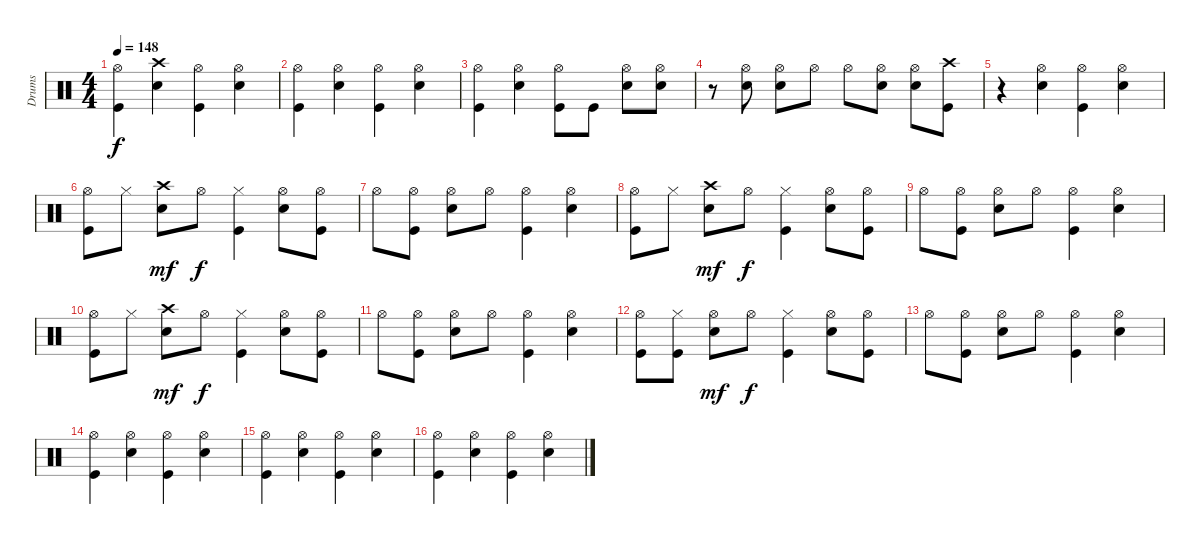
\track ("Drums" "Drums") {instrument percussion}
\staff {score}
\articulation defaults
\ts (4 4)
\tempo 148
\clef neutral
\ks c
("Hi-Hat (open)" "Kick (hit)").4{dy f} ("Crash high (hit)" "Snare (hit) 2").4 ("Hi-Hat (open)" "Kick (hit)").4 ("Hi-Hat (open)" "Snare (hit) 2").4 |
("Hi-Hat (open)" "Kick (hit)").4 ("Hi-Hat (open)" "Snare (hit) 2").4 ("Hi-Hat (open)" "Kick (hit)").4 ("Hi-Hat (open)" "Snare (hit) 2").4 |
("Hi-Hat (open)" "Kick (hit)").4 ("Hi-Hat (open)" "Snare (hit) 2").4 ("Hi-Hat (open)" "Kick (hit)").8 "Kick (hit)".8 ("Hi-Hat (open)" "Snare (hit) 2").8 ("Hi-Hat (open)" "Snare (hit) 2").8 |
r.8 ("Hi-Hat (open)" "Snare (hit) 2").8 ("Hi-Hat (open)" "Snare (hit) 2").8 "Hi-Hat (open)".8 "Hi-Hat (open)".8 ("Hi-Hat (open)" "Snare (hit) 2").8 ("Hi-Hat (open)" "Snare (hit) 2").8 ("Crash high (hit)" "Kick (hit)").8 |
r.4 ("Hi-Hat (open)" "Snare (hit) 2").4 ("Hi-Hat (open)" "Kick (hit)").4 ("Hi-Hat (open)" "Snare (hit) 2").4 |
("Hi-Hat (open)" "Kick (hit)").8 "Hi-Hat (closed)".8 ("Crash high (hit)" "Snare (hit) 2").8{dy mf} "Hi-Hat (open)".8{dy f} ("Hi-Hat (closed)" "Kick (hit)").4 ("Hi-Hat (open)" "Snare (hit) 2").8 ("Hi-Hat (open)" "Kick (hit)").8 |
"Hi-Hat (open)".8 ("Hi-Hat (open)" "Kick (hit)").8 ("Hi-Hat (open)" "Snare (hit) 2").8 "Hi-Hat (open)".8 ("Hi-Hat (open)" "Kick (hit)").4 ("Hi-Hat (open)" "Snare (hit) 2").4 |
("Hi-Hat (open)" "Kick (hit)").8 "Hi-Hat (closed)".8 ("Crash high (hit)" "Snare (hit) 2").8{dy mf} "Hi-Hat (open)".8{dy f} ("Hi-Hat (closed)" "Kick (hit)").4 ("Hi-Hat (open)" "Snare (hit) 2").8 ("Hi-Hat (open)" "Kick (hit)").8 |
"Hi-Hat (open)".8 ("Hi-Hat (open)" "Kick (hit)").8 ("Hi-Hat (open)" "Snare (hit) 2").8 "Hi-Hat (open)".8 ("Hi-Hat (open)" "Kick (hit)").4 ("Hi-Hat (open)" "Snare (hit) 2").4 |
("Hi-Hat (open)" "Kick (hit)").8 "Hi-Hat (closed)".8 ("Crash high (hit)" "Snare (hit) 2").8{dy mf} "Hi-Hat (open)".8{dy f} ("Hi-Hat (closed)" "Kick (hit)").4 ("Hi-Hat (open)" "Snare (hit) 2").8 ("Hi-Hat (open)" "Kick (hit)").8 |
"Hi-Hat (open)".8 ("Hi-Hat (open)" "Kick (hit)").8 ("Hi-Hat (open)" "Snare (hit) 2").8 "Hi-Hat (open)".8 ("Hi-Hat (open)" "Kick (hit)").4 ("Hi-Hat (open)" "Snare (hit) 2").4 |
("Hi-Hat (open)" "Kick (hit)").8 ("Hi-Hat (closed)" "Kick (hit)").8 ("Hi-Hat (open)" "Snare (hit) 2").8{dy mf} "Hi-Hat (open)".8{dy f} ("Hi-Hat (closed)" "Kick (hit)").4 ("Hi-Hat (open)" "Snare (hit) 2").8 ("Hi-Hat (open)" "Kick (hit)").8 |
"Hi-Hat (open)".8 ("Hi-Hat (open)" "Kick (hit)").8 ("Hi-Hat (open)" "Snare (hit) 2").8 "Hi-Hat (open)".8 ("Hi-Hat (open)" "Kick (hit)").4 ("Hi-Hat (open)" "Snare (hit) 2").4 |
("Hi-Hat (open)" "Kick (hit)").4 ("Hi-Hat (open)" "Snare (hit) 2").4 ("Hi-Hat (open)" "Kick (hit)").4 ("Hi-Hat (open)" "Snare (hit) 2").4 |
("Hi-Hat (open)" "Kick (hit)").4 ("Hi-Hat (open)" "Snare (hit) 2").4 ("Hi-Hat (open)" "Kick (hit)").4 ("Hi-Hat (open)" "Snare (hit) 2").4 |
("Hi-Hat (open)" "Kick (hit)").4 ("Hi-Hat (open)" "Snare (hit) 2").4 ("Hi-Hat (open)" "Kick (hit)").4 ("Hi-Hat (open)" "Snare (hit) 2").4
